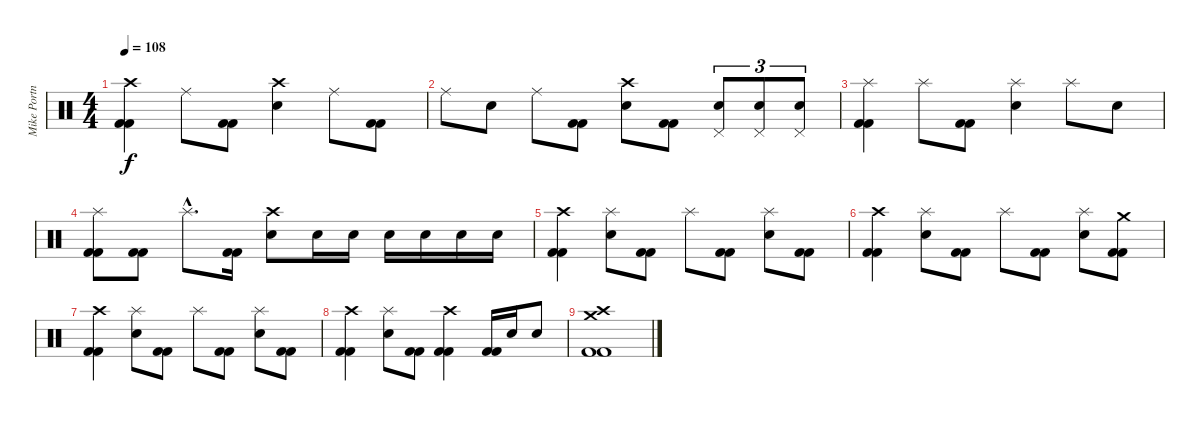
\track ("Mike Portnoy - Drum" "Mike Portn") {instrument percussion}
\staff {score}
\articulation defaults
\ts (4 4)
\tempo 108
\clef neutral
\ks c
("Crash high (hit)" "Kick (hit) 2" "Kick (hit) 2").4{dy f} "Ride (middle)".8 ("Kick (hit) 2" "Kick (hit) 2").8 ("Crash high (hit)" "Snare (hit) 2").4 "Ride (middle)".8 ("Kick (hit) 2" "Kick (hit) 2").8 |
"Ride (middle)".8 "Snare (hit) 2".8 "Ride (middle)".8 ("Kick (hit) 2" "Kick (hit) 2").8 ("Crash high (hit)" "Snare (hit) 2").8 ("Kick (hit) 2" "Kick (hit) 2").8 ("Pedal Hi-Hat (hit)" "Snare (hit) 2").8{tu (3 2)} ("Pedal Hi-Hat (hit)" "Snare (hit) 2").8{tu (3 2)} ("Pedal Hi-Hat (hit)" "Snare (hit) 2").8{tu (3 2)} |
("Splash (hit)" "Kick (hit) 2" "Kick (hit) 2").4 "Splash (hit)".8 ("Kick (hit) 2" "Kick (hit) 2").8 ("Splash (hit)" "Snare (hit) 2").4 "Splash (hit)".8 "Snare (hit) 2".8 |
("Splash (hit)" "Kick (hit) 2" "Kick (hit) 2").8 ("Kick (hit) 2" "Kick (hit) 2").8 "Splash (hit)"{hac}.8{d} ("Kick (hit) 2" "Kick (hit) 2").16 ("Crash high (hit)" "Snare (hit) 2").8 "Snare (hit) 2".16 "Snare (hit) 2".16 "Snare (hit) 2".16 "Snare (hit) 2".16 "Snare (hit) 2".16 "Snare (hit) 2".16 |
("Crash high (hit)" "Kick (hit) 2" "Kick (hit) 2").4 ("Splash (hit)" "Snare (hit) 2").8 ("Kick (hit) 2" "Kick (hit) 2").8 "Splash (hit)".8 ("Kick (hit) 2" "Kick (hit) 2").8 ("Splash (hit)" "Snare (hit) 2").8 ("Kick (hit) 2" "Kick (hit) 2").8 |
("Crash high (hit)" "Kick (hit) 2" "Kick (hit) 2").4 ("Splash (hit)" "Snare (hit) 2").8 ("Kick (hit) 2" "Kick (hit) 2").8 "Splash (hit)".8 ("Kick (hit) 2" "Kick (hit) 2").8 ("Splash (hit)" "Snare (hit) 2").8 ("Crash medium (hit)" "Kick (hit) 2" "Kick (hit) 2").8 |
("Crash high (hit)" "Kick (hit) 2" "Kick (hit) 2").4 ("Splash (hit)" "Snare (hit) 2").8 ("Kick (hit) 2" "Kick (hit) 2").8 "Splash (hit)".8 ("Kick (hit) 2" "Kick (hit) 2").8 ("Splash (hit)" "Snare (hit) 2").8 ("Kick (hit) 2" "Kick (hit) 2").8 |
("Crash high (hit)" "Kick (hit) 2" "Kick (hit) 2").4 ("Splash (hit)" "Snare (hit) 2").8 ("Kick (hit) 2" "Kick (hit) 2").8 ("Crash high (hit)" "Kick (hit) 2" "Kick (hit) 2").4 ("Kick (hit) 2" "Kick (hit) 2").16 "Snare (hit) 2".16 "Snare (hit) 2".8 |
("Crash high (hit)" "Crash medium (hit)" "Kick (hit) 2" "Kick (hit) 2").1
